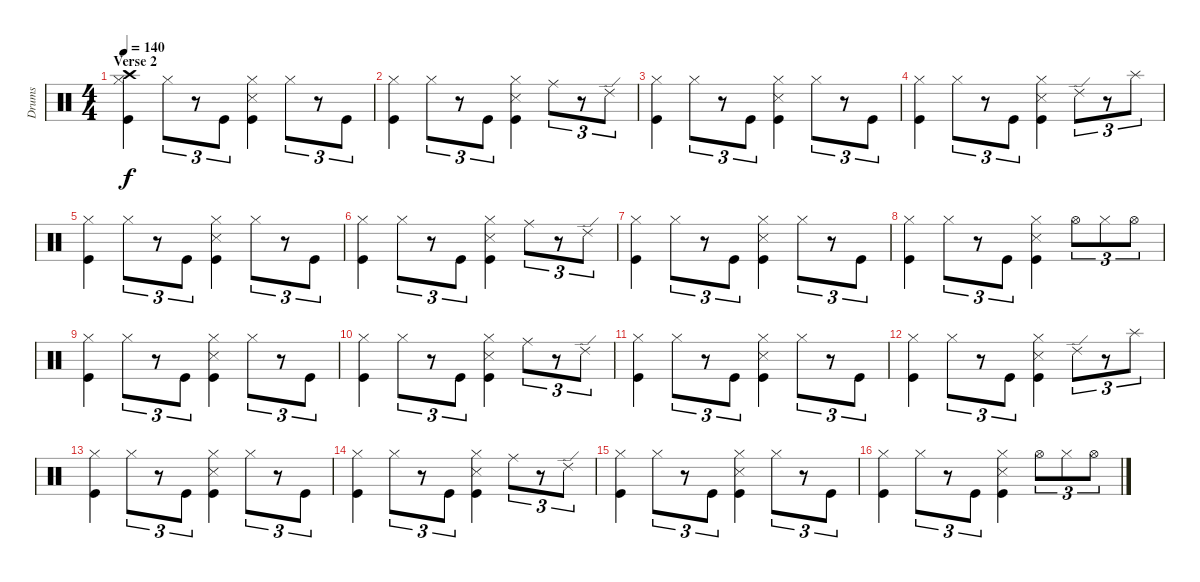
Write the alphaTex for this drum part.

\track ("Drums" "Drums") {instrument percussion}
\staff {score}
\articulation defaults
\ts (4 4)
\section ("" "Verse 2")
\tempo 140
\clef neutral
\ks c
("Crash high (hit)" "Hi-Hat (closed)" "Kick (hit)").4{dy f} "Hi-Hat (closed)".8{tu (3 2)} r.8{tu (3 2)} "Kick (hit)".8{tu (3 2)} ("Hi-Hat (closed)" "Snare (side stick) 3" "Kick (hit)").4 "Hi-Hat (closed)".8{tu (3 2)} r.8{tu (3 2)} "Kick (hit)".8{tu (3 2)} |
("Hi-Hat (closed)" "Kick (hit)").4 "Hi-Hat (closed)".8{tu (3 2)} r.8{tu (3 2)} "Kick (hit)".8{tu (3 2)} ("Hi-Hat (closed)" "Snare (side stick) 3" "Kick (hit)").4 "Ride (middle)".8{tu (3 2)} r.8{tu (3 2)} "Ride (edge) 2".8{tu (3 2)} |
("Hi-Hat (closed)" "Kick (hit)").4 "Hi-Hat (closed)".8{tu (3 2)} r.8{tu (3 2)} "Kick (hit)".8{tu (3 2)} ("Hi-Hat (closed)" "Snare (side stick) 3" "Kick (hit)").4 "Hi-Hat (closed)".8{tu (3 2)} r.8{tu (3 2)} "Kick (hit)".8{tu (3 2)} |
("Hi-Hat (closed)" "Kick (hit)").4 "Hi-Hat (closed)".8{tu (3 2)} r.8{tu (3 2)} "Kick (hit)".8{tu (3 2)} ("Hi-Hat (closed)" "Snare (side stick) 3" "Kick (hit)").4 "Ride (edge) 2".8{tu (3 2)} r.8{tu (3 2)} "Splash (hit)".8{tu (3 2)} |
("Hi-Hat (closed)" "Kick (hit)").4 "Hi-Hat (closed)".8{tu (3 2)} r.8{tu (3 2)} "Kick (hit)".8{tu (3 2)} ("Hi-Hat (closed)" "Snare (side stick) 3" "Kick (hit)").4 "Hi-Hat (closed)".8{tu (3 2)} r.8{tu (3 2)} "Kick (hit)".8{tu (3 2)} |
("Hi-Hat (closed)" "Kick (hit)").4 "Hi-Hat (closed)".8{tu (3 2)} r.8{tu (3 2)} "Kick (hit)".8{tu (3 2)} ("Hi-Hat (closed)" "Snare (side stick) 3" "Kick (hit)").4 "Ride (middle)".8{tu (3 2)} r.8{tu (3 2)} "Ride (edge) 2".8{tu (3 2)} |
("Hi-Hat (closed)" "Kick (hit)").4 "Hi-Hat (closed)".8{tu (3 2)} r.8{tu (3 2)} "Kick (hit)".8{tu (3 2)} ("Hi-Hat (closed)" "Snare (side stick) 3" "Kick (hit)").4 "Hi-Hat (closed)".8{tu (3 2)} r.8{tu (3 2)} "Kick (hit)".8{tu (3 2)} |
("Hi-Hat (closed)" "Kick (hit)").4 "Hi-Hat (closed)".8{tu (3 2)} r.8{tu (3 2)} "Kick (hit)".8{tu (3 2)} ("Hi-Hat (closed)" "Snare (side stick) 3" "Kick (hit)").4 "Hi-Hat (open)".8{tu (3 2)} "Hi-Hat (closed)".8{tu (3 2)} "Hi-Hat (open)".8{tu (3 2)} |
("Hi-Hat (closed)" "Kick (hit)").4 "Hi-Hat (closed)".8{tu (3 2)} r.8{tu (3 2)} "Kick (hit)".8{tu (3 2)} ("Hi-Hat (closed)" "Snare (side stick) 3" "Kick (hit)").4 "Hi-Hat (closed)".8{tu (3 2)} r.8{tu (3 2)} "Kick (hit)".8{tu (3 2)} |
("Hi-Hat (closed)" "Kick (hit)").4 "Hi-Hat (closed)".8{tu (3 2)} r.8{tu (3 2)} "Kick (hit)".8{tu (3 2)} ("Hi-Hat (closed)" "Snare (side stick) 3" "Kick (hit)").4 "Ride (middle)".8{tu (3 2)} r.8{tu (3 2)} "Ride (edge) 2".8{tu (3 2)} |
("Hi-Hat (closed)" "Kick (hit)").4 "Hi-Hat (closed)".8{tu (3 2)} r.8{tu (3 2)} "Kick (hit)".8{tu (3 2)} ("Hi-Hat (closed)" "Snare (side stick) 3" "Kick (hit)").4 "Hi-Hat (closed)".8{tu (3 2)} r.8{tu (3 2)} "Kick (hit)".8{tu (3 2)} |
("Hi-Hat (closed)" "Kick (hit)").4 "Hi-Hat (closed)".8{tu (3 2)} r.8{tu (3 2)} "Kick (hit)".8{tu (3 2)} ("Hi-Hat (closed)" "Snare (side stick) 3" "Kick (hit)").4 "Ride (edge) 2".8{tu (3 2)} r.8{tu (3 2)} "Splash (hit)".8{tu (3 2)} |
("Hi-Hat (closed)" "Kick (hit)").4 "Hi-Hat (closed)".8{tu (3 2)} r.8{tu (3 2)} "Kick (hit)".8{tu (3 2)} ("Hi-Hat (closed)" "Snare (side stick) 3" "Kick (hit)").4 "Hi-Hat (closed)".8{tu (3 2)} r.8{tu (3 2)} "Kick (hit)".8{tu (3 2)} |
("Hi-Hat (closed)" "Kick (hit)").4 "Hi-Hat (closed)".8{tu (3 2)} r.8{tu (3 2)} "Kick (hit)".8{tu (3 2)} ("Hi-Hat (closed)" "Snare (side stick) 3" "Kick (hit)").4 "Ride (middle)".8{tu (3 2)} r.8{tu (3 2)} "Ride (edge) 2".8{tu (3 2)} |
("Hi-Hat (closed)" "Kick (hit)").4 "Hi-Hat (closed)".8{tu (3 2)} r.8{tu (3 2)} "Kick (hit)".8{tu (3 2)} ("Hi-Hat (closed)" "Snare (side stick) 3" "Kick (hit)").4 "Hi-Hat (closed)".8{tu (3 2)} r.8{tu (3 2)} "Kick (hit)".8{tu (3 2)} |
("Hi-Hat (closed)" "Kick (hit)").4 "Hi-Hat (closed)".8{tu (3 2)} r.8{tu (3 2)} "Kick (hit)".8{tu (3 2)} ("Hi-Hat (closed)" "Snare (side stick) 3" "Kick (hit)").4 "Hi-Hat (open)".8{tu (3 2)} "Hi-Hat (closed)".8{tu (3 2)} "Hi-Hat (open)".8{tu (3 2)}
